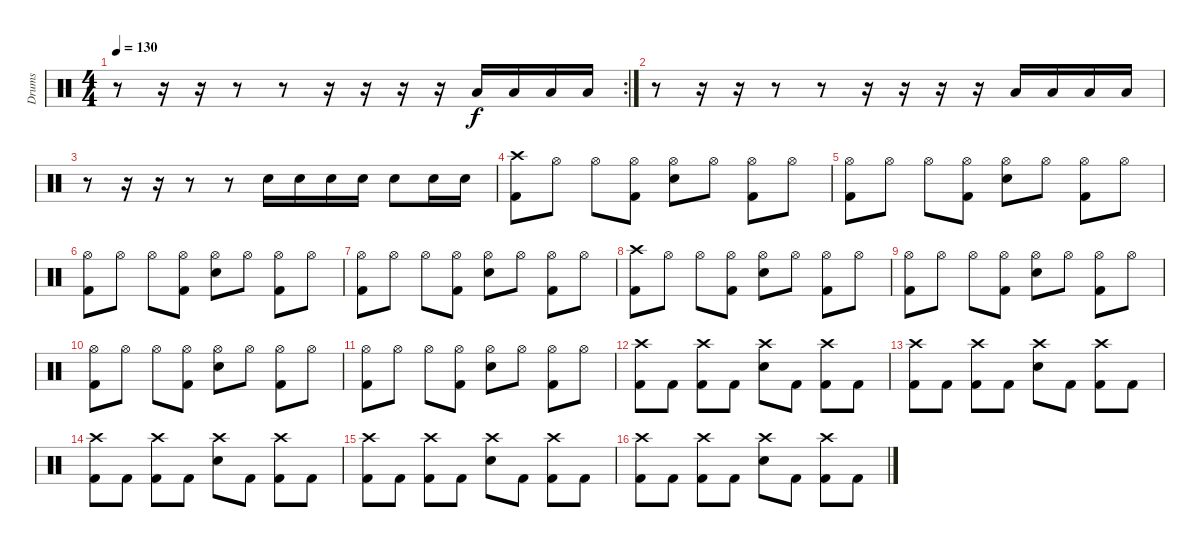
\track ("Drums" "Drums") {instrument percussion}
\staff {score}
\articulation defaults
\rc 2
\ts (4 4)
\tempo 130
\clef neutral
\ks c
r.8{dy f} r.16 r.16 r.8 r.8 r.16 r.16 r.16 r.16 "Low Floor Tom (hit)".16 "Low Floor Tom (hit)".16 "Low Floor Tom (hit)".16 "Low Floor Tom (hit)".16 |
r.8 r.16 r.16 r.8 r.8 r.16 r.16 r.16 r.16 "Low Floor Tom (hit)".16 "Low Floor Tom (hit)".16 "Low Floor Tom (hit)".16 "Low Floor Tom (hit)".16 |
r.8 r.16 r.16 r.8 r.8 "Snare (hit) 2".16 "Snare (hit) 2".16 "Snare (hit) 2".16 "Snare (hit) 2".16 "Snare (hit) 2".8 "Snare (hit) 2".16 "Snare (hit) 2".16 |
("Crash high (hit)" "Kick (hit) 2").8 "Hi-Hat (open)".8 "Hi-Hat (open)".8 ("Hi-Hat (open)" "Kick (hit) 2").8 ("Hi-Hat (open)" "Snare (hit) 2").8 "Hi-Hat (open)".8 ("Hi-Hat (open)" "Kick (hit) 2").8 "Hi-Hat (open)".8 |
("Hi-Hat (open)" "Kick (hit) 2").8 "Hi-Hat (open)".8 "Hi-Hat (open)".8 ("Hi-Hat (open)" "Kick (hit) 2").8 ("Hi-Hat (open)" "Snare (hit) 2").8 "Hi-Hat (open)".8 ("Hi-Hat (open)" "Kick (hit) 2").8 "Hi-Hat (open)".8 |
("Hi-Hat (open)" "Kick (hit) 2").8 "Hi-Hat (open)".8 "Hi-Hat (open)".8 ("Hi-Hat (open)" "Kick (hit) 2").8 ("Hi-Hat (open)" "Snare (hit) 2").8 "Hi-Hat (open)".8 ("Hi-Hat (open)" "Kick (hit) 2").8 "Hi-Hat (open)".8 |
("Hi-Hat (open)" "Kick (hit) 2").8 "Hi-Hat (open)".8 "Hi-Hat (open)".8 ("Hi-Hat (open)" "Kick (hit) 2").8 ("Hi-Hat (open)" "Snare (hit) 2").8 "Hi-Hat (open)".8 ("Hi-Hat (open)" "Kick (hit) 2").8 "Hi-Hat (open)".8 |
("Crash high (hit)" "Kick (hit) 2").8 "Hi-Hat (open)".8 "Hi-Hat (open)".8 ("Hi-Hat (open)" "Kick (hit) 2").8 ("Hi-Hat (open)" "Snare (hit) 2").8 "Hi-Hat (open)".8 ("Hi-Hat (open)" "Kick (hit) 2").8 "Hi-Hat (open)".8 |
("Hi-Hat (open)" "Kick (hit) 2").8 "Hi-Hat (open)".8 "Hi-Hat (open)".8 ("Hi-Hat (open)" "Kick (hit) 2").8 ("Hi-Hat (open)" "Snare (hit) 2").8 "Hi-Hat (open)".8 ("Hi-Hat (open)" "Kick (hit) 2").8 "Hi-Hat (open)".8 |
("Hi-Hat (open)" "Kick (hit) 2").8 "Hi-Hat (open)".8 "Hi-Hat (open)".8 ("Hi-Hat (open)" "Kick (hit) 2").8 ("Hi-Hat (open)" "Snare (hit) 2").8 "Hi-Hat (open)".8 ("Hi-Hat (open)" "Kick (hit) 2").8 "Hi-Hat (open)".8 |
("Hi-Hat (open)" "Kick (hit) 2").8 "Hi-Hat (open)".8 "Hi-Hat (open)".8 ("Hi-Hat (open)" "Kick (hit) 2").8 ("Hi-Hat (open)" "Snare (hit) 2").8 "Hi-Hat (open)".8 ("Hi-Hat (open)" "Kick (hit) 2").8 "Hi-Hat (open)".8 |
("Crash high (hit)" "Kick (hit) 2").8 "Kick (hit) 2".8 ("Crash high (hit)" "Kick (hit) 2").8 "Kick (hit) 2".8 ("Crash high (hit)" "Snare (hit) 2").8 "Kick (hit) 2".8 ("Crash high (hit)" "Kick (hit) 2").8 "Kick (hit) 2".8 |
("Crash high (hit)" "Kick (hit) 2").8 "Kick (hit) 2".8 ("Crash high (hit)" "Kick (hit) 2").8 "Kick (hit) 2".8 ("Crash high (hit)" "Snare (hit) 2").8 "Kick (hit) 2".8 ("Crash high (hit)" "Kick (hit) 2").8 "Kick (hit) 2".8 |
("Crash high (hit)" "Kick (hit) 2").8 "Kick (hit) 2".8 ("Crash high (hit)" "Kick (hit) 2").8 "Kick (hit) 2".8 ("Crash high (hit)" "Snare (hit) 2").8 "Kick (hit) 2".8 ("Crash high (hit)" "Kick (hit) 2").8 "Kick (hit) 2".8 |
("Crash high (hit)" "Kick (hit) 2").8 "Kick (hit) 2".8 ("Crash high (hit)" "Kick (hit) 2").8 "Kick (hit) 2".8 ("Crash high (hit)" "Snare (hit) 2").8 "Kick (hit) 2".8 ("Crash high (hit)" "Kick (hit) 2").8 "Kick (hit) 2".8 |
("Crash high (hit)" "Kick (hit) 2").8 "Kick (hit) 2".8 ("Crash high (hit)" "Kick (hit) 2").8 "Kick (hit) 2".8 ("Crash high (hit)" "Snare (hit) 2").8 "Kick (hit) 2".8 ("Crash high (hit)" "Kick (hit) 2").8 "Kick (hit) 2".8
